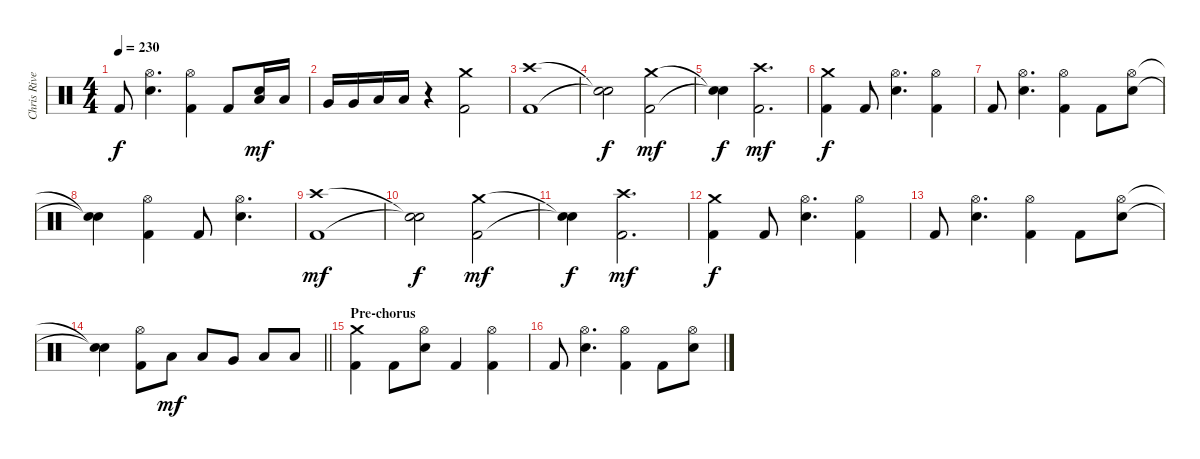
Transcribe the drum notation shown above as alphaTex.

\track ("Chris Rivers" "Chris Rive") {instrument percussion}
\staff {score}
\articulation defaults
\ts (4 4)
\tempo 230
\clef neutral
\ks c "Kick (hit) 2".8{dy f}
("Hi-Hat (open)" "Electric Snare (hit)").4{d} ("Hi-Hat (open)" "Kick (hit) 2").4 "Kick (hit) 2".8 ("Electric Snare (hit)" "Low Tom (hit)").16{dy mf} "Low Tom (hit)".16 |
"Very Low Tom (hit)".16 "Very Low Tom (hit)".16 "Low Tom (hit)".16 "Low Tom (hit)".16 r.4 ("Crash medium (hit)" "Kick (hit) 2").2 |
("Crash high (hit)" "Kick (hit) 2").1 |
("Snare (hit)"{t} "Snare (hit)"{t}).2{dy f} ("Crash medium (hit)" "Kick (hit) 2").2{dy mf} |
("Snare (hit)"{t} "Snare (hit)"{t}).4{dy f} ("Crash high (hit)" "Kick (hit) 2").2{d dy mf} |
("Crash medium (hit)" "Kick (hit) 2").4{dy f} "Kick (hit) 2".8 ("Hi-Hat (open)" "Electric Snare (hit)").4{d} ("Hi-Hat (open)" "Kick (hit) 2").4 |
"Kick (hit) 2".8 ("Hi-Hat (open)" "Electric Snare (hit)").4{d} ("Hi-Hat (open)" "Kick (hit) 2").4 "Kick (hit) 2".8 ("Hi-Hat (open)" "Electric Snare (hit)").8 |
("Snare (hit)"{t} "Snare (hit)"{t}).4 ("Hi-Hat (open)" "Kick (hit) 2").4 "Kick (hit) 2".8 ("Hi-Hat (open)" "Electric Snare (hit)").4{d} |
("Crash high (hit)" "Kick (hit) 2").1{dy mf} |
("Snare (hit)"{t} "Snare (hit)"{t}).2{dy f} ("Crash medium (hit)" "Kick (hit) 2").2{dy mf} |
("Snare (hit)"{t} "Snare (hit)"{t}).4{dy f} ("Crash high (hit)" "Kick (hit) 2").2{d dy mf} |
("Crash medium (hit)" "Kick (hit) 2").4{dy f} "Kick (hit) 2".8 ("Hi-Hat (open)" "Electric Snare (hit)").4{d} ("Hi-Hat (open)" "Kick (hit) 2").4 |
"Kick (hit) 2".8 ("Hi-Hat (open)" "Electric Snare (hit)").4{d} ("Hi-Hat (open)" "Kick (hit) 2").4 "Kick (hit) 2".8 ("Hi-Hat (open)" "Electric Snare (hit)").8 |
\barLineRight lightlight
("Snare (hit)"{t} "Snare (hit)"{t}).4 ("Hi-Hat (open)" "Kick (hit) 2").8 "Low Tom (hit)".8{dy mf} "Low Tom (hit)".8 "Very Low Tom (hit)".8 "Low Floor Tom (hit)".8 "Low Floor Tom (hit)".8 |
\section ("" "Pre-chorus")
("Crash medium (hit)" "Kick (hit) 2").4 "Kick (hit) 2".8 ("Hi-Hat (open)" "Electric Snare (hit)").8 "Kick (hit) 2".4 ("Hi-Hat (open)" "Kick (hit) 2").4 |
"Kick (hit) 2".8 ("Hi-Hat (open)" "Electric Snare (hit)").4{d} ("Hi-Hat (open)" "Kick (hit) 2").4 "Kick (hit) 2".8 ("Hi-Hat (open)" "Electric Snare (hit)").8
